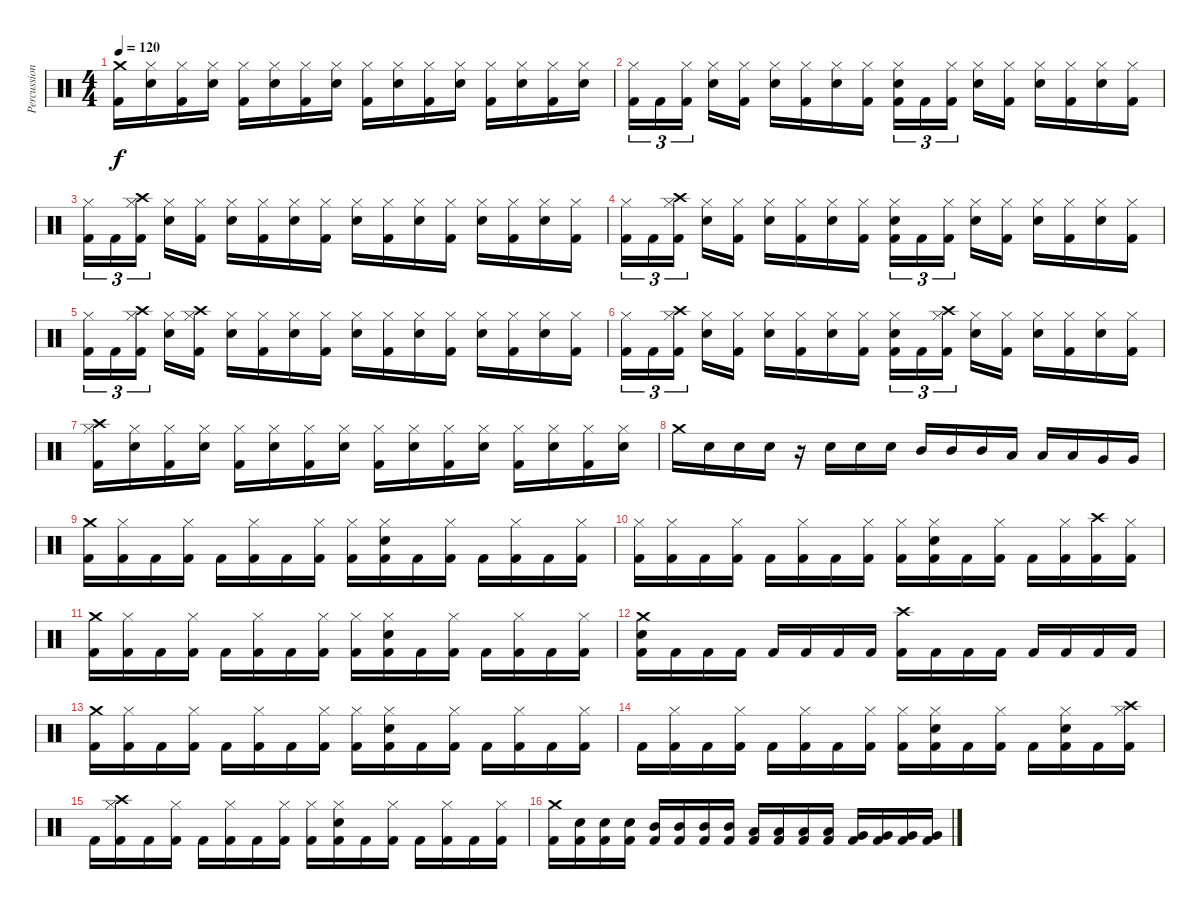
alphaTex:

\track ("Percussion" "Percussion") {instrument percussion}
\staff {score}
\articulation defaults
\ts (4 4)
\tempo 120
\clef neutral
\ks c
("Crash medium (hit)" "Kick (hit) 2").16{dy f} ("Hi-Hat (closed)" "Snare (hit) 2").16 ("Hi-Hat (closed)" "Kick (hit) 2").16 ("Hi-Hat (closed)" "Snare (hit) 2").16 ("Hi-Hat (closed)" "Kick (hit) 2").16 ("Hi-Hat (closed)" "Snare (hit) 2").16 ("Hi-Hat (closed)" "Kick (hit) 2").16 ("Hi-Hat (closed)" "Snare (hit) 2").16 ("Hi-Hat (closed)" "Kick (hit) 2").16 ("Hi-Hat (closed)" "Snare (hit) 2").16 ("Hi-Hat (closed)" "Kick (hit) 2").16 ("Hi-Hat (closed)" "Snare (hit) 2").16 ("Hi-Hat (closed)" "Kick (hit) 2").16 ("Hi-Hat (closed)" "Snare (hit) 2").16 ("Hi-Hat (closed)" "Kick (hit) 2").16 ("Hi-Hat (closed)" "Snare (hit) 2").16 |
("Hi-Hat (closed)" "Kick (hit) 2").16{tu (3 2)} "Kick (hit) 2".16{tu (3 2)} ("Hi-Hat (closed)" "Kick (hit) 2").16{tu (3 2)} ("Hi-Hat (closed)" "Snare (hit) 2").16 ("Hi-Hat (closed)" "Kick (hit) 2").16 ("Hi-Hat (closed)" "Snare (hit) 2").16 ("Hi-Hat (closed)" "Kick (hit) 2").16 ("Hi-Hat (closed)" "Snare (hit) 2").16 ("Hi-Hat (closed)" "Kick (hit) 2").16 ("Hi-Hat (closed)" "Snare (hit) 2" "Kick (hit) 2").16{tu (3 2)} "Kick (hit) 2".16{tu (3 2)} ("Hi-Hat (closed)" "Kick (hit) 2").16{tu (3 2)} ("Hi-Hat (closed)" "Snare (hit) 2").16 ("Hi-Hat (closed)" "Kick (hit) 2").16 ("Hi-Hat (closed)" "Snare (hit) 2").16 ("Hi-Hat (closed)" "Kick (hit) 2").16 ("Hi-Hat (closed)" "Snare (hit) 2").16 ("Hi-Hat (closed)" "Kick (hit) 2").16 |
("Hi-Hat (closed)" "Kick (hit) 2").16{tu (3 2)} "Kick (hit) 2".16{tu (3 2)} ("Crash high (hit)" "Hi-Hat (closed)" "Kick (hit) 2").16{tu (3 2)} ("Hi-Hat (closed)" "Snare (hit) 2").16 ("Hi-Hat (closed)" "Kick (hit) 2").16 ("Hi-Hat (closed)" "Snare (hit) 2").16 ("Hi-Hat (closed)" "Kick (hit) 2").16 ("Hi-Hat (closed)" "Snare (hit) 2").16 ("Hi-Hat (closed)" "Kick (hit) 2").16 ("Hi-Hat (closed)" "Snare (hit) 2").16 ("Hi-Hat (closed)" "Kick (hit) 2").16 ("Hi-Hat (closed)" "Snare (hit) 2").16 ("Hi-Hat (closed)" "Kick (hit) 2").16 ("Hi-Hat (closed)" "Snare (hit) 2").16 ("Hi-Hat (closed)" "Kick (hit) 2").16 ("Hi-Hat (closed)" "Snare (hit) 2").16 ("Hi-Hat (closed)" "Kick (hit) 2").16 |
("Hi-Hat (closed)" "Kick (hit) 2").16{tu (3 2)} "Kick (hit) 2".16{tu (3 2)} ("Crash high (hit)" "Hi-Hat (closed)" "Kick (hit) 2").16{tu (3 2)} ("Hi-Hat (closed)" "Snare (hit) 2").16 ("Hi-Hat (closed)" "Kick (hit) 2").16 ("Hi-Hat (closed)" "Snare (hit) 2").16 ("Hi-Hat (closed)" "Kick (hit) 2").16 ("Hi-Hat (closed)" "Snare (hit) 2").16 ("Hi-Hat (closed)" "Kick (hit) 2").16 ("Hi-Hat (closed)" "Snare (hit) 2" "Kick (hit) 2").16{tu (3 2)} "Kick (hit) 2".16{tu (3 2)} ("Hi-Hat (closed)" "Kick (hit) 2").16{tu (3 2)} ("Hi-Hat (closed)" "Snare (hit) 2").16 ("Hi-Hat (closed)" "Kick (hit) 2").16 ("Hi-Hat (closed)" "Snare (hit) 2").16 ("Hi-Hat (closed)" "Kick (hit) 2").16 ("Hi-Hat (closed)" "Snare (hit) 2").16 ("Hi-Hat (closed)" "Kick (hit) 2").16 |
("Hi-Hat (closed)" "Kick (hit) 2").16{tu (3 2)} "Kick (hit) 2".16{tu (3 2)} ("Crash high (hit)" "Hi-Hat (closed)" "Kick (hit) 2").16{tu (3 2)} ("Hi-Hat (closed)" "Snare (hit) 2").16 ("Crash high (hit)" "Hi-Hat (closed)" "Kick (hit) 2").16 ("Hi-Hat (closed)" "Snare (hit) 2").16 ("Hi-Hat (closed)" "Kick (hit) 2").16 ("Hi-Hat (closed)" "Snare (hit) 2").16 ("Hi-Hat (closed)" "Kick (hit) 2").16 ("Hi-Hat (closed)" "Snare (hit) 2").16 ("Hi-Hat (closed)" "Kick (hit) 2").16 ("Hi-Hat (closed)" "Snare (hit) 2").16 ("Hi-Hat (closed)" "Kick (hit) 2").16 ("Hi-Hat (closed)" "Snare (hit) 2").16 ("Hi-Hat (closed)" "Kick (hit) 2").16 ("Hi-Hat (closed)" "Snare (hit) 2").16 ("Hi-Hat (closed)" "Kick (hit) 2").16 |
("Hi-Hat (closed)" "Kick (hit) 2").16{tu (3 2)} "Kick (hit) 2".16{tu (3 2)} ("Crash high (hit)" "Hi-Hat (closed)" "Kick (hit) 2").16{tu (3 2)} ("Hi-Hat (closed)" "Snare (hit) 2").16 ("Hi-Hat (closed)" "Kick (hit) 2").16 ("Hi-Hat (closed)" "Snare (hit) 2").16 ("Hi-Hat (closed)" "Kick (hit) 2").16 ("Hi-Hat (closed)" "Snare (hit) 2").16 ("Hi-Hat (closed)" "Kick (hit) 2").16 ("Hi-Hat (closed)" "Snare (hit) 2" "Kick (hit) 2").16{tu (3 2)} "Kick (hit) 2".16{tu (3 2)} ("Crash high (hit)" "Hi-Hat (closed)" "Kick (hit) 2").16{tu (3 2)} ("Hi-Hat (closed)" "Snare (hit) 2").16 ("Hi-Hat (closed)" "Kick (hit) 2").16 ("Hi-Hat (closed)" "Snare (hit) 2").16 ("Hi-Hat (closed)" "Kick (hit) 2").16 ("Hi-Hat (closed)" "Snare (hit) 2").16 ("Hi-Hat (closed)" "Kick (hit) 2").16 |
("Crash high (hit)" "Hi-Hat (closed)" "Kick (hit) 2").16 ("Hi-Hat (closed)" "Snare (hit) 2").16 ("Hi-Hat (closed)" "Kick (hit) 2").16 ("Hi-Hat (closed)" "Snare (hit) 2").16 ("Hi-Hat (closed)" "Kick (hit) 2").16 ("Hi-Hat (closed)" "Snare (hit) 2").16 ("Hi-Hat (closed)" "Kick (hit) 2").16 ("Hi-Hat (closed)" "Snare (hit) 2").16 ("Hi-Hat (closed)" "Kick (hit) 2").16 ("Hi-Hat (closed)" "Snare (hit) 2").16 ("Hi-Hat (closed)" "Kick (hit) 2").16 ("Hi-Hat (closed)" "Snare (hit) 2").16 ("Hi-Hat (closed)" "Kick (hit) 2").16 ("Hi-Hat (closed)" "Snare (hit) 2").16 ("Hi-Hat (closed)" "Kick (hit) 2").16 ("Hi-Hat (closed)" "Snare (hit) 2").16 |
"Crash medium (hit)".16 "Snare (hit) 2".16 "Snare (hit) 2".16 "Snare (hit) 2".16 r.16 "Snare (hit) 2".16 "Snare (hit) 2".16 "Snare (hit) 2".16 "Mid Tom (hit)".16 "Mid Tom (hit)".16 "Mid Tom (hit)".16 "Low Tom (hit)".16 "Low Tom (hit)".16 "Low Tom (hit)".16 "Very Low Tom (hit)".16 "Very Low Tom (hit)".16 |
("Crash medium (hit)" "Kick (hit) 2").16 ("Hi-Hat (closed)" "Kick (hit) 2").16 "Kick (hit) 2".16 ("Hi-Hat (closed)" "Kick (hit) 2").16 "Kick (hit) 2".16 ("Hi-Hat (closed)" "Kick (hit) 2").16 "Kick (hit) 2".16 ("Hi-Hat (closed)" "Kick (hit) 2").16 ("Hi-Hat (closed)" "Kick (hit) 2").16 ("Hi-Hat (closed)" "Snare (hit) 2" "Kick (hit) 2").16 "Kick (hit) 2".16 ("Hi-Hat (closed)" "Kick (hit) 2").16 "Kick (hit) 2".16 ("Hi-Hat (closed)" "Kick (hit) 2").16 "Kick (hit) 2".16 ("Hi-Hat (closed)" "Kick (hit) 2").16 |
("Hi-Hat (closed)" "Kick (hit) 2").16 ("Hi-Hat (closed)" "Kick (hit) 2").16 "Kick (hit) 2".16 ("Hi-Hat (closed)" "Kick (hit) 2").16 "Kick (hit) 2".16 ("Hi-Hat (closed)" "Kick (hit) 2").16 "Kick (hit) 2".16 ("Hi-Hat (closed)" "Kick (hit) 2").16 ("Hi-Hat (closed)" "Kick (hit) 2").16 ("Hi-Hat (closed)" "Snare (hit) 2" "Kick (hit) 2").16 "Kick (hit) 2".16 ("Hi-Hat (closed)" "Kick (hit) 2").16 "Kick (hit) 2".16 ("Hi-Hat (closed)" "Kick (hit) 2").16 ("Crash high (hit)" "Kick (hit) 2").16 ("Hi-Hat (closed)" "Kick (hit) 2").16 |
("Crash medium (hit)" "Kick (hit) 2").16 ("Hi-Hat (closed)" "Kick (hit) 2").16 "Kick (hit) 2".16 ("Hi-Hat (closed)" "Kick (hit) 2").16 "Kick (hit) 2".16 ("Hi-Hat (closed)" "Kick (hit) 2").16 "Kick (hit) 2".16 ("Hi-Hat (closed)" "Kick (hit) 2").16 ("Hi-Hat (closed)" "Kick (hit) 2").16 ("Hi-Hat (closed)" "Snare (hit) 2" "Kick (hit) 2").16 "Kick (hit) 2".16 ("Hi-Hat (closed)" "Kick (hit) 2").16 "Kick (hit) 2".16 ("Hi-Hat (closed)" "Kick (hit) 2").16 "Kick (hit) 2".16 ("Hi-Hat (closed)" "Kick (hit) 2").16 |
("Crash medium (hit)" "Snare (hit) 2" "Kick (hit) 2").16 "Kick (hit) 2".16 "Kick (hit) 2".16 "Kick (hit) 2".16 "Kick (hit) 2".16 "Kick (hit) 2".16 "Kick (hit) 2".16 "Kick (hit) 2".16 ("Crash high (hit)" "Kick (hit) 2").16 "Kick (hit) 2".16 "Kick (hit) 2".16 "Kick (hit) 2".16 "Kick (hit) 2".16 "Kick (hit) 2".16 "Kick (hit) 2".16 "Kick (hit) 2".16 |
("Crash medium (hit)" "Kick (hit) 2").16 ("Hi-Hat (closed)" "Kick (hit) 2").16 "Kick (hit) 2".16 ("Hi-Hat (closed)" "Kick (hit) 2").16 "Kick (hit) 2".16 ("Hi-Hat (closed)" "Kick (hit) 2").16 "Kick (hit) 2".16 ("Hi-Hat (closed)" "Kick (hit) 2").16 ("Hi-Hat (closed)" "Kick (hit) 2").16 ("Hi-Hat (closed)" "Snare (hit) 2" "Kick (hit) 2").16 "Kick (hit) 2".16 ("Hi-Hat (closed)" "Kick (hit) 2").16 "Kick (hit) 2".16 ("Hi-Hat (closed)" "Kick (hit) 2").16 "Kick (hit) 2".16 ("Hi-Hat (closed)" "Kick (hit) 2").16 |
"Kick (hit) 2".16 ("Hi-Hat (closed)" "Kick (hit) 2").16 "Kick (hit) 2".16 ("Hi-Hat (closed)" "Kick (hit) 2").16 "Kick (hit) 2".16 ("Hi-Hat (closed)" "Kick (hit) 2").16 "Kick (hit) 2".16 ("Hi-Hat (closed)" "Kick (hit) 2").16 ("Hi-Hat (closed)" "Kick (hit) 2").16 ("Hi-Hat (closed)" "Snare (hit) 2" "Kick (hit) 2").16 "Kick (hit) 2".16 ("Hi-Hat (closed)" "Kick (hit) 2").16 "Kick (hit) 2".16 ("Hi-Hat (closed)" "Snare (hit) 2" "Kick (hit) 2").16 "Kick (hit) 2".16 ("Crash high (hit)" "Hi-Hat (closed)" "Kick (hit) 2").16 |
"Kick (hit) 2".16 ("Crash high (hit)" "Hi-Hat (closed)" "Kick (hit) 2").16 "Kick (hit) 2".16 ("Hi-Hat (closed)" "Kick (hit) 2").16 "Kick (hit) 2".16 ("Hi-Hat (closed)" "Kick (hit) 2").16 "Kick (hit) 2".16 ("Hi-Hat (closed)" "Kick (hit) 2").16 ("Hi-Hat (closed)" "Kick (hit) 2").16 ("Hi-Hat (closed)" "Snare (hit) 2" "Kick (hit) 2").16 "Kick (hit) 2".16 ("Hi-Hat (closed)" "Kick (hit) 2").16 "Kick (hit) 2".16 ("Hi-Hat (closed)" "Kick (hit) 2").16 "Kick (hit) 2".16 ("Hi-Hat (closed)" "Kick (hit) 2").16 |
("Crash medium (hit)" "Kick (hit) 2").16 ("Snare (hit) 2" "Kick (hit) 2").16 ("Snare (hit) 2" "Kick (hit) 2").16 ("Snare (hit) 2" "Kick (hit) 2").16 ("Mid Tom (hit)" "Kick (hit) 2").16 ("Mid Tom (hit)" "Kick (hit) 2").16 ("Mid Tom (hit)" "Kick (hit) 2").16 ("Mid Tom (hit)" "Kick (hit) 2").16 ("Low Tom (hit)" "Kick (hit) 2").16 ("Low Tom (hit)" "Kick (hit) 2").16 ("Low Tom (hit)" "Kick (hit) 2").16 ("Low Tom (hit)" "Kick (hit) 2").16 ("Very Low Tom (hit)" "Kick (hit) 2").16 ("Very Low Tom (hit)" "Kick (hit) 2").16 ("Very Low Tom (hit)" "Kick (hit) 2").16 ("Very Low Tom (hit)" "Kick (hit) 2").16
